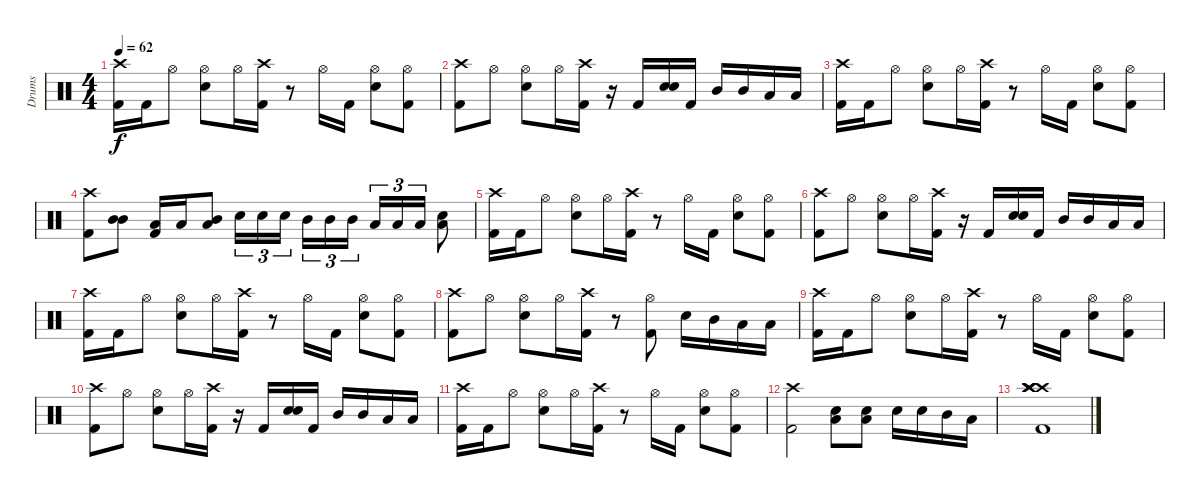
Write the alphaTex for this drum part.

\track ("Drums" "Drums") {instrument percussion}
\staff {score}
\articulation defaults
\ts (4 4)
\tempo 62
\clef neutral
\ks c
("Crash high (hit)" "Kick (hit) 2").16{dy f} "Kick (hit) 2".16 "Hi-Hat (open)".8 ("Hi-Hat (open)" "Snare (hit) 2").8 "Hi-Hat (open)".16 ("Crash high (hit)" "Kick (hit) 2").16 r.8 "Hi-Hat (open)".16 "Kick (hit) 2".16 ("Hi-Hat (open)" "Snare (hit) 2").8 ("Hi-Hat (open)" "Kick (hit) 2").8 |
("Crash high (hit)" "Kick (hit) 2").8 "Hi-Hat (open)".8 ("Hi-Hat (open)" "Snare (hit) 2").8 "Hi-Hat (open)".16 ("Crash high (hit)" "Kick (hit) 2").16 r.16 "Kick (hit) 2".16 ("Snare (hit) 2" "Snare (hit) 2").16{bd 120} "Kick (hit) 2".16 "Mid Tom (hit)".16 "Mid Tom (hit)".16 "Low Tom (hit)".16 "Low Floor Tom (hit)".16 |
("Crash high (hit)" "Kick (hit) 2").16 "Kick (hit) 2".16 "Hi-Hat (open)".8 ("Hi-Hat (open)" "Snare (hit) 2").8 "Hi-Hat (open)".16 ("Crash high (hit)" "Kick (hit) 2").16 r.8 "Hi-Hat (open)".16 "Kick (hit) 2".16 ("Hi-Hat (open)" "Snare (hit) 2").8 ("Hi-Hat (open)" "Kick (hit) 2").8 |
("Crash high (hit)" "Kick (hit) 2").8 ("Mid Tom (hit)" "Mid Tom (hit)").8{bd 120} ("Low Tom (hit)" "Kick (hit) 2").16 "Low Tom (hit)".16 ("Low Floor Tom (hit)" "Mid Tom (hit)").8 "Snare (hit) 2".16{tu (3 2)} "Snare (hit) 2".16{tu (3 2)} "Snare (hit) 2".16{tu (3 2)} "Mid Tom (hit)".16{tu (3 2)} "Mid Tom (hit)".16{tu (3 2)} "Mid Tom (hit)".16{tu (3 2)} "Low Tom (hit)".16{tu (3 2)} "Low Tom (hit)".16{tu (3 2)} "Low Tom (hit)".16{tu (3 2)} ("Low Floor Tom (hit)" "Snare (hit) 2").8 |
("Crash high (hit)" "Kick (hit) 2").16 "Kick (hit) 2".16 "Hi-Hat (open)".8 ("Hi-Hat (open)" "Snare (hit) 2").8 "Hi-Hat (open)".16 ("Crash high (hit)" "Kick (hit) 2").16 r.8 "Hi-Hat (open)".16 "Kick (hit) 2".16 ("Hi-Hat (open)" "Snare (hit) 2").8 ("Hi-Hat (open)" "Kick (hit) 2").8 |
("Crash high (hit)" "Kick (hit) 2").8 "Hi-Hat (open)".8 ("Hi-Hat (open)" "Snare (hit) 2").8 "Hi-Hat (open)".16 ("Crash high (hit)" "Kick (hit) 2").16 r.16 "Kick (hit) 2".16 ("Snare (hit) 2" "Snare (hit) 2").16{bd 120} "Kick (hit) 2".16 "Mid Tom (hit)".16 "Mid Tom (hit)".16 "Low Tom (hit)".16 "Low Floor Tom (hit)".16 |
("Crash high (hit)" "Kick (hit) 2").16 "Kick (hit) 2".16 "Hi-Hat (open)".8 ("Hi-Hat (open)" "Snare (hit) 2").8 "Hi-Hat (open)".16 ("Crash high (hit)" "Kick (hit) 2").16 r.8 "Hi-Hat (open)".16 "Kick (hit) 2".16 ("Hi-Hat (open)" "Snare (hit) 2").8 ("Hi-Hat (open)" "Kick (hit) 2").8 |
("Crash high (hit)" "Kick (hit) 2").8 "Hi-Hat (open)".8 ("Hi-Hat (open)" "Snare (hit) 2").8 "Hi-Hat (open)".16 ("Crash high (hit)" "Kick (hit) 2").16 r.8 ("Hi-Hat (open)" "Kick (hit) 2").8 "Snare (hit) 2".16 "Mid Tom (hit)".16 "Low Tom (hit)".16 "Low Floor Tom (hit)".16 |
("Crash high (hit)" "Kick (hit) 2").16 "Kick (hit) 2".16 "Hi-Hat (open)".8 ("Hi-Hat (open)" "Snare (hit) 2").8 "Hi-Hat (open)".16 ("Crash high (hit)" "Kick (hit) 2").16 r.8 "Hi-Hat (open)".16 "Kick (hit) 2".16 ("Hi-Hat (open)" "Snare (hit) 2").8 ("Hi-Hat (open)" "Kick (hit) 2").8 |
("Crash high (hit)" "Kick (hit) 2").8 "Hi-Hat (open)".8 ("Hi-Hat (open)" "Snare (hit) 2").8 "Hi-Hat (open)".16 ("Crash high (hit)" "Kick (hit) 2").16 r.16 "Kick (hit) 2".16 ("Snare (hit) 2" "Snare (hit) 2").16{bd 120} "Kick (hit) 2".16 "Mid Tom (hit)".16 "Mid Tom (hit)".16 "Low Tom (hit)".16 "Low Floor Tom (hit)".16 |
("Crash high (hit)" "Kick (hit) 2").16 "Kick (hit) 2".16 "Hi-Hat (open)".8 ("Hi-Hat (open)" "Snare (hit) 2").8 "Hi-Hat (open)".16 ("Crash high (hit)" "Kick (hit) 2").16 r.8 "Hi-Hat (open)".16 "Kick (hit) 2".16 ("Hi-Hat (open)" "Snare (hit) 2").8 ("Hi-Hat (open)" "Kick (hit) 2").8 |
("Crash high (hit)" "Kick (hit) 2").2 ("Low Floor Tom (hit)" "Snare (hit) 2").8 ("Low Floor Tom (hit)" "Snare (hit) 2").8 "Snare (hit) 2".16 "Snare (hit) 2".16 "Mid Tom (hit)".16 "Low Tom (hit)".16 |
("Crash high (hit)" "Crash high (hit)" "Crash high (hit)" "Crash high (hit)" "Crash high (hit)" "Kick (hit) 2").1{bd 60}
